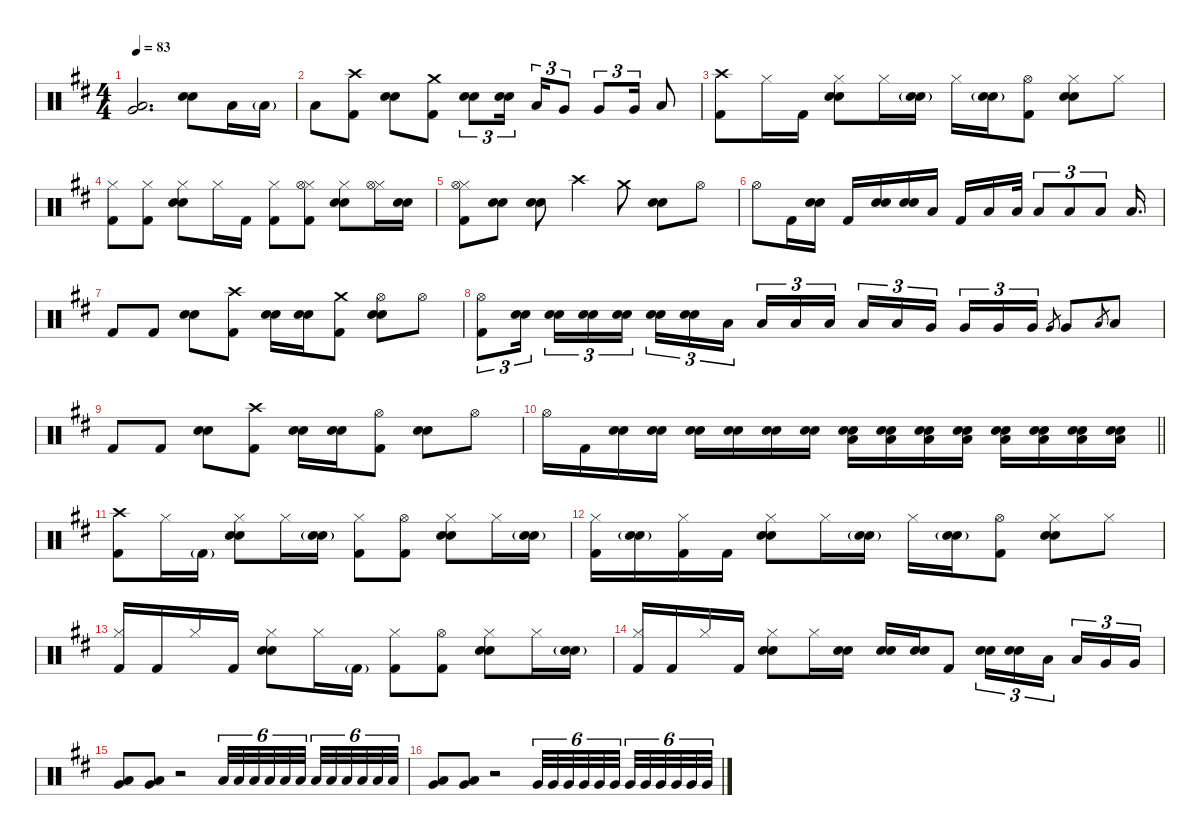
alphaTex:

\defaultSystemsLayout 4
\hideDynamics
\bracketExtendMode nobrackets
\singleTrackTrackNamePolicy hidden
\multiTrackTrackNamePolicy hidden
\firstSystemTrackNameMode fullname
\firstSystemTrackNameOrientation horizontal
\otherSystemsTrackNameOrientation horizontal
\track ("Batterie" "drm.") {defaultSystemsLayout 4 instrument percussion}
\staff {score}
\articulation defaults
\ts (4 4)
\tempo 83
\clef neutral
\ks bminor
("Very Low Tom (hit)"{acc forcenatural} "Low Floor Tom (hit)"{acc forcenatural}).2{d dy f beam Up} ("Snare (hit) 2"{acc forcenatural} "Snare (hit) 2"{acc forcenatural}).8{dy mp beam Down} "Low Floor Tom (hit)"{acc forcenatural}.16{dy f beam Down} "Low Floor Tom (hit)"{g acc forcenatural}.16{beam Down} |
"Low Floor Tom (hit)"{acc forcenatural}.8{beam Down} ("Crash high (hit)"{acc forcenatural} "Kick (hit) 2"{acc forcenatural}).8{beam Down} ("Snare (hit) 2"{acc forcenatural} "Snare (hit) 2"{acc forcenatural}).8{dy mf beam Down} ("Crash medium (hit)"{acc forcenatural} "Kick (hit) 2"{acc forcenatural}).8{dy f beam Down} ("Snare (hit) 2"{acc forcenatural} "Snare (hit) 2"{acc forcenatural}).8{tu (3 2) dy mf beam Down} ("Snare (hit) 2"{acc forcenatural} "Snare (hit) 2"{acc forcenatural}).16{tu (3 2) beam Down} "Low Tom (hit)"{acc forcenatural}.16{tu (3 2) dy f beam Up} "Very Low Tom (hit)"{acc forcenatural}.8{tu (3 2) beam Up} "Very Low Tom (hit)"{acc forcenatural}.8{tu (3 2) beam Up} "Very Low Tom (hit)"{acc forcenatural}.16{tu (3 2) beam Up} "Low Floor Tom (hit)"{acc forcenatural}.8{beam Up} |
("Crash high (hit)"{acc forcenatural} "Kick (hit) 2"{acc forcenatural}).8{dy mp beam Down} "Hi-Hat (closed)"{acc forcenatural}.16{dy f beam Down} "Kick (hit) 2"{acc forcenatural}.16{dy mf beam Down} ("Hi-Hat (closed)"{acc forcenatural} "Snare (hit) 2"{acc forcenatural} "Snare (hit) 2"{acc forcenatural}).8{dy f beam Down} "Hi-Hat (closed)"{acc forcenatural}.16{beam Down} ("Snare (hit) 2"{g acc forcenatural} "Snare (hit) 2"{g acc forcenatural}).16{dy mf beam Down} "Hi-Hat (closed)"{acc forcenatural}.16{dy f beam Down} ("Snare (hit) 2"{g acc forcenatural} "Snare (hit) 2"{g acc forcenatural}).16{dy mp beam Down} ("Hi-Hat (open)"{acc forcenatural} "Kick (hit) 2"{acc forcenatural}).8{beam Down} ("Hi-Hat (closed)"{acc forcenatural} "Snare (hit) 2"{acc forcenatural} "Snare (hit) 2"{acc forcenatural}).8{dy f beam Down} "Hi-Hat (closed)"{acc forcenatural}.8{beam Down} |
("Hi-Hat (closed)"{acc forcenatural} "Kick (hit) 2"{acc forcenatural}).8{beam Down} ("Hi-Hat (closed)"{acc forcenatural} "Kick (hit) 2"{acc forcenatural}).8{beam Down} ("Hi-Hat (closed)"{acc forcenatural} "Snare (hit) 2"{acc forcenatural} "Snare (hit) 2"{acc forcenatural}).8{beam Down} "Hi-Hat (closed)"{acc forcenatural}.16{beam Down} "Kick (hit) 2"{acc forcenatural}.16{dy mf beam Down} ("Hi-Hat (closed)"{acc forcenatural} "Kick (hit) 2"{acc forcenatural}).8{dy f beam Down} ("Hi-Hat (closed)"{acc forcenatural} "Hi-Hat (open)"{acc forcenatural} "Kick (hit) 2"{acc forcenatural}).8{beam Down} ("Hi-Hat (closed)"{acc forcenatural} "Snare (hit) 2"{acc forcenatural} "Snare (hit) 2"{acc forcenatural}).8{beam Down} ("Hi-Hat (closed)"{acc forcenatural} "Hi-Hat (open)"{acc forcenatural}).16{beam Down} ("Snare (hit) 2"{acc forcenatural} "Snare (hit) 2"{acc forcenatural}).16{dy mf beam Down} |
("Hi-Hat (closed)"{acc forcenatural} "Hi-Hat (open)"{acc forcenatural} "Kick (hit) 2"{acc forcenatural}).8{dy f beam Down} ("Snare (hit) 2"{acc forcenatural} "Snare (hit) 2"{acc forcenatural}).8{dy mf beam Down} ("Snare (hit) 2"{acc forcenatural} "Snare (hit) 2"{acc forcenatural}).8{beam Down} "Crash high (hit)"{acc forcenatural}.4{dy f beam Down} "Crash medium (hit)"{acc forcenatural}.8{beam Down} ("Snare (hit) 2"{acc forcenatural} "Snare (hit) 2"{acc forcenatural}).8{dy mf beam Down} "Hi-Hat (open)"{acc forcenatural}.8{dy mp beam Down} |
"Hi-Hat (open)"{acc forcenatural}.8{dy f beam Down} "Kick (hit) 2"{acc forcenatural}.16{dy mf beam Down} ("Snare (hit) 2"{acc forcenatural} "Snare (hit) 2"{acc forcenatural}).16{beam Down} "Kick (hit) 2"{acc forcenatural}.16{beam Up} ("Snare (hit) 2"{acc forcenatural} "Snare (hit) 2"{acc forcenatural}).16{beam Up} ("Snare (hit) 2"{acc forcenatural} "Snare (hit) 2"{acc forcenatural}).16{beam Up} "Low Tom (hit)"{acc forcenatural}.16{dy f beam Up} "Kick (hit) 2"{acc forcenatural}.16{dy mf beam Up} "Low Tom (hit)"{acc forcenatural}.16{dy f beam Up} "Low Tom (hit)"{acc forcenatural}.32{beam Up} "Low Tom (hit)"{acc forcenatural}.8{tu (3 2) beam Up} "Low Floor Tom (hit)"{acc forcenatural}.8{tu (3 2) beam Up} "Low Floor Tom (hit)"{acc forcenatural}.8{tu (3 2) beam Up} "Low Floor Tom (hit)"{acc forcenatural}.16{d beam Up} |
"Kick (hit) 2"{acc forcenatural}.8{dy mf beam Up} "Kick (hit) 2"{acc forcenatural}.8{beam Up} ("Snare (hit) 2"{acc forcenatural} "Snare (hit) 2"{acc forcenatural}).8{beam Down} ("Crash high (hit)"{acc forcenatural} "Kick (hit) 2"{acc forcenatural}).8{dy f beam Down} ("Snare (hit) 2"{acc forcenatural} "Snare (hit) 2"{acc forcenatural}).16{dy mf beam Down} ("Snare (hit) 2"{acc forcenatural} "Snare (hit) 2"{acc forcenatural}).16{beam Down} ("Crash medium (hit)"{acc forcenatural} "Kick (hit) 2"{acc forcenatural}).8{dy f beam Down} ("Hi-Hat (open)"{acc forcenatural} "Snare (hit) 2"{acc forcenatural} "Snare (hit) 2"{acc forcenatural}).8{dy mp beam Down} "Hi-Hat (open)"{acc forcenatural}.8{beam Down} |
("Hi-Hat (open)"{acc forcenatural} "Kick (hit) 2"{acc forcenatural}).8{tu (3 2) beam Down} ("Snare (hit) 2"{acc forcenatural} "Snare (hit) 2"{acc forcenatural}).16{tu (3 2) dy mf beam Down} ("Snare (hit) 2"{acc forcenatural} "Snare (hit) 2"{acc forcenatural}).16{tu (3 2) beam Down} ("Snare (hit) 2"{acc forcenatural} "Snare (hit) 2"{acc forcenatural}).16{tu (3 2) beam Down} ("Snare (hit) 2"{acc forcenatural} "Snare (hit) 2"{acc forcenatural}).16{tu (3 2) beam Down} ("Snare (hit) 2"{acc forcenatural} "Snare (hit) 2"{acc forcenatural}).16{tu (3 2) beam Down} ("Snare (hit) 2"{acc forcenatural} "Snare (hit) 2"{acc forcenatural}).16{tu (3 2) beam Down} "Low Tom (hit)"{acc forcenatural}.16{tu (3 2) dy f beam Down} "Low Tom (hit)"{acc forcenatural}.16{tu (3 2) beam Up} "Low Tom (hit)"{acc forcenatural}.16{tu (3 2) beam Up} "Low Tom (hit)"{acc forcenatural}.16{tu (3 2) beam Up} "Low Tom (hit)"{acc forcenatural}.16{tu (3 2) beam Up} "Low Tom (hit)"{acc forcenatural}.16{tu (3 2) beam Up} "Very Low Tom (hit)"{acc forcenatural}.16{tu (3 2) beam Up} "Very Low Tom (hit)"{acc forcenatural}.16{tu (3 2) beam Up} "Very Low Tom (hit)"{acc forcenatural}.16{tu (3 2) beam Up} "Very Low Tom (hit)"{acc forcenatural}.16{tu (3 2) beam Up} "Very Low Tom (hit)"{acc forcenatural}.8{gr dy mf beam Up} "Very Low Tom (hit)"{acc forcenatural}.8{dy f beam Up} "Low Floor Tom (hit)"{acc forcenatural}.8{gr dy mf beam Up} "Low Floor Tom (hit)"{acc forcenatural}.8{dy f beam Up} |
"Kick (hit) 2"{acc forcenatural}.8{dy mf beam Up} "Kick (hit) 2"{acc forcenatural}.8{beam Up} ("Snare (hit) 2"{acc forcenatural} "Snare (hit) 2"{acc forcenatural}).8{beam Down} ("Crash high (hit)"{acc forcenatural} "Kick (hit) 2"{acc forcenatural}).8{dy f beam Down} ("Snare (hit) 2"{acc forcenatural} "Snare (hit) 2"{acc forcenatural}).16{dy mf beam Down} ("Snare (hit) 2"{acc forcenatural} "Snare (hit) 2"{acc forcenatural}).16{beam Down} ("Hi-Hat (open)"{acc forcenatural} "Kick (hit) 2"{acc forcenatural}).8{dy mp beam Down} ("Snare (hit) 2"{acc forcenatural} "Snare (hit) 2"{acc forcenatural}).8{dy mf beam Down} "Hi-Hat (open)"{acc forcenatural}.8{dy mp beam Down} |
\barLineRight lightlight "Hi-Hat (open)"{acc forcenatural}.16{dy f beam Down} "Kick (hit) 2"{acc forcenatural}.16{dy mf beam Down}
("Snare (hit) 2"{acc forcenatural} "Snare (hit) 2"{acc forcenatural}).16{dy pp beam Down} ("Snare (hit) 2"{acc forcenatural} "Snare (hit) 2"{acc forcenatural}).16{beam Down} ("Snare (hit) 2"{acc forcenatural} "Snare (hit) 2"{acc forcenatural}).16{dy p beam Down} ("Snare (hit) 2"{acc forcenatural} "Snare (hit) 2"{acc forcenatural}).16{beam Down} ("Snare (hit) 2"{acc forcenatural} "Snare (hit) 2"{acc forcenatural}).16{dy mp beam Down} ("Snare (hit) 2"{acc forcenatural} "Snare (hit) 2"{acc forcenatural}).16{beam Down} ("Snare (hit) 2"{acc forcenatural} "Snare (hit) 2"{acc forcenatural} "Low Floor Tom (hit)"{acc forcenatural}).16{dy mf beam Down} ("Snare (hit) 2"{acc forcenatural} "Snare (hit) 2"{acc forcenatural} "Low Floor Tom (hit)"{acc forcenatural}).16{beam Down} ("Snare (hit) 2"{acc forcenatural} "Snare (hit) 2"{acc forcenatural} "Low Floor Tom (hit)"{acc forcenatural}).16{dy f beam Down} ("Snare (hit) 2"{acc forcenatural} "Snare (hit) 2"{acc forcenatural} "Low Floor Tom (hit)"{acc forcenatural}).16{beam Down} ("Snare (hit) 2"{acc forcenatural} "Snare (hit) 2"{acc forcenatural} "Low Floor Tom (hit)"{acc forcenatural}).16{dy ff beam Down} ("Snare (hit) 2"{acc forcenatural} "Snare (hit) 2"{acc forcenatural} "Low Floor Tom (hit)"{acc forcenatural}).16{beam Down} ("Snare (hit) 2"{acc forcenatural} "Snare (hit) 2"{acc forcenatural} "Low Floor Tom (hit)"{acc forcenatural}).16{dy fff beam Down} ("Snare (hit) 2"{acc forcenatural} "Snare (hit) 2"{acc forcenatural} "Low Floor Tom (hit)"{acc forcenatural}).16{beam Down} |
("Crash high (hit)"{acc forcenatural} "Kick (hit) 2"{acc forcenatural}).8{dy mf beam Down} "Hi-Hat (closed)"{acc forcenatural}.16{dy f beam Down} "Kick (hit) 2"{g acc forcenatural}.16{beam Down} ("Hi-Hat (closed)"{acc forcenatural} "Snare (hit) 2"{acc forcenatural} "Snare (hit) 2"{acc forcenatural}).8{beam Down} "Hi-Hat (closed)"{acc forcenatural}.16{beam Down} ("Snare (hit) 2"{g acc forcenatural} "Snare (hit) 2"{g acc forcenatural}).16{beam Down} ("Hi-Hat (closed)"{acc forcenatural} "Kick (hit) 2"{acc forcenatural}).8{beam Down} ("Hi-Hat (open)"{acc forcenatural} "Kick (hit) 2"{acc forcenatural}).8{dy mp beam Down} ("Hi-Hat (closed)"{acc forcenatural} "Snare (hit) 2"{acc forcenatural} "Snare (hit) 2"{acc forcenatural}).8{dy f beam Down} "Hi-Hat (closed)"{acc forcenatural}.16{beam Down} ("Snare (hit) 2"{g acc forcenatural} "Snare (hit) 2"{g acc forcenatural}).16{dy mf beam Down} |
("Hi-Hat (closed)"{acc forcenatural} "Kick (hit) 2"{acc forcenatural}).16{dy f beam Down} ("Snare (hit) 2"{g acc forcenatural} "Snare (hit) 2"{g acc forcenatural}).16{dy mp beam Down} ("Hi-Hat (closed)"{acc forcenatural} "Kick (hit) 2"{acc forcenatural}).16{dy f beam Down} "Kick (hit) 2"{acc forcenatural}.16{dy mf beam Down} ("Hi-Hat (closed)"{acc forcenatural} "Snare (hit) 2"{acc forcenatural} "Snare (hit) 2"{acc forcenatural}).8{dy f beam Down} "Hi-Hat (closed)"{acc forcenatural}.16{beam Down} ("Snare (hit) 2"{g acc forcenatural} "Snare (hit) 2"{g acc forcenatural}).16{dy mf beam Down} "Hi-Hat (closed)"{acc forcenatural}.16{dy f beam Down} ("Snare (hit) 2"{g acc forcenatural} "Snare (hit) 2"{g acc forcenatural}).16{dy mp beam Down} ("Hi-Hat (open)"{acc forcenatural} "Kick (hit) 2"{acc forcenatural}).8{beam Down} ("Hi-Hat (closed)"{acc forcenatural} "Snare (hit) 2"{acc forcenatural} "Snare (hit) 2"{acc forcenatural}).8{dy f beam Down} "Hi-Hat (closed)"{acc forcenatural}.8{beam Down} |
("Hi-Hat (closed)"{acc forcenatural} "Kick (hit) 2"{acc forcenatural}).16{beam Up} "Kick (hit) 2"{acc forcenatural}.16{dy mf beam Up} "Hi-Hat (closed)"{acc forcenatural}.16{dy f beam Up} "Kick (hit) 2"{acc forcenatural}.16{dy mf beam Up} ("Hi-Hat (closed)"{acc forcenatural} "Snare (hit) 2"{acc forcenatural} "Snare (hit) 2"{acc forcenatural}).8{dy f beam Down} "Hi-Hat (closed)"{acc forcenatural}.16{beam Down} "Kick (hit) 2"{g acc forcenatural}.16{beam Down} ("Hi-Hat (closed)"{acc forcenatural} "Kick (hit) 2"{acc forcenatural}).8{beam Down} ("Hi-Hat (open)"{acc forcenatural} "Kick (hit) 2"{acc forcenatural}).8{dy mp beam Down} ("Hi-Hat (closed)"{acc forcenatural} "Snare (hit) 2"{acc forcenatural} "Snare (hit) 2"{acc forcenatural}).8{dy f beam Down} "Hi-Hat (closed)"{acc forcenatural}.16{beam Down} ("Snare (hit) 2"{g acc forcenatural} "Snare (hit) 2"{g acc forcenatural}).16{dy mf beam Down} |
("Hi-Hat (closed)"{acc forcenatural} "Kick (hit) 2"{acc forcenatural}).16{dy f beam Up} "Kick (hit) 2"{acc forcenatural}.16{dy mf beam Up} "Hi-Hat (closed)"{acc forcenatural}.16{dy f beam Up} "Kick (hit) 2"{acc forcenatural}.16{dy mf beam Up} ("Hi-Hat (closed)"{acc forcenatural} "Snare (hit) 2"{acc forcenatural} "Snare (hit) 2"{acc forcenatural}).8{dy f beam Down} "Hi-Hat (closed)"{acc forcenatural}.16{beam Down} ("Snare (hit) 2"{acc forcenatural} "Snare (hit) 2"{acc forcenatural}).16{dy mf beam Down} ("Snare (hit) 2"{acc forcenatural} "Snare (hit) 2"{acc forcenatural}).16{beam Up} ("Snare (hit) 2"{acc forcenatural} "Snare (hit) 2"{acc forcenatural}).16{beam Up} "Kick (hit) 2"{acc forcenatural}.8{dy f beam Up} ("Snare (hit) 2"{acc forcenatural} "Snare (hit) 2"{acc forcenatural}).16{tu (3 2) beam Down} ("Snare (hit) 2"{acc forcenatural} "Snare (hit) 2"{acc forcenatural}).16{tu (3 2) beam Down} "Low Tom (hit)"{acc forcenatural}.16{tu (3 2) beam Down} "Low Tom (hit)"{acc forcenatural}.16{tu (3 2) beam Up} "Very Low Tom (hit)"{acc forcenatural}.16{tu (3 2) beam Up} "Very Low Tom (hit)"{acc forcenatural}.16{tu (3 2) beam Up} |
("Very Low Tom (hit)"{acc forcenatural} "Low Floor Tom (hit)"{acc forcenatural}).8{beam Up} ("Very Low Tom (hit)"{acc forcenatural} "Low Floor Tom (hit)"{acc forcenatural}).8{beam Up} r.2{beam Up} "Low Floor Tom (hit)"{acc forcenatural}.32{tu (6 4) beam Up} "Low Floor Tom (hit)"{acc forcenatural}.32{tu (6 4) dy mf beam Up} "Low Floor Tom (hit)"{acc forcenatural}.32{tu (6 4) dy mp beam Up} "Low Floor Tom (hit)"{acc forcenatural}.32{tu (6 4) dy p beam Up} "Low Floor Tom (hit)"{acc forcenatural}.32{tu (6 4) beam Up} "Low Floor Tom (hit)"{acc forcenatural}.32{tu (6 4) beam Up} "Low Floor Tom (hit)"{acc forcenatural}.32{tu (6 4) beam Up} "Low Floor Tom (hit)"{acc forcenatural}.32{tu (6 4) beam Up} "Low Floor Tom (hit)"{acc forcenatural}.32{tu (6 4) dy mp beam Up} "Low Floor Tom (hit)"{acc forcenatural}.32{tu (6 4) dy mf beam Up} "Low Floor Tom (hit)"{acc forcenatural}.32{tu (6 4) beam Up} "Low Floor Tom (hit)"{acc forcenatural}.32{tu (6 4) dy f beam Up} |
("Very Low Tom (hit)"{acc forcenatural} "Low Floor Tom (hit)"{acc forcenatural}).8{beam Up} ("Very Low Tom (hit)"{acc forcenatural} "Low Floor Tom (hit)"{acc forcenatural}).8{beam Up} r.2{beam Up} "Very Low Tom (hit)"{acc forcenatural}.32{tu (6 4) beam Up} "Very Low Tom (hit)"{acc forcenatural}.32{tu (6 4) dy mf beam Up} "Very Low Tom (hit)"{acc forcenatural}.32{tu (6 4) dy mp beam Up} "Very Low Tom (hit)"{acc forcenatural}.32{tu (6 4) dy p beam Up} "Very Low Tom (hit)"{acc forcenatural}.32{tu (6 4) beam Up} "Very Low Tom (hit)"{acc forcenatural}.32{tu (6 4) beam Up} "Very Low Tom (hit)"{acc forcenatural}.32{tu (6 4) beam Up} "Very Low Tom (hit)"{acc forcenatural}.32{tu (6 4) beam Up} "Very Low Tom (hit)"{acc forcenatural}.32{tu (6 4) dy mp beam Up} "Very Low Tom (hit)"{acc forcenatural}.32{tu (6 4) dy mf beam Up} "Very Low Tom (hit)"{acc forcenatural}.32{tu (6 4) beam Up} "Very Low Tom (hit)"{acc forcenatural}.32{tu (6 4) dy f beam Up}
